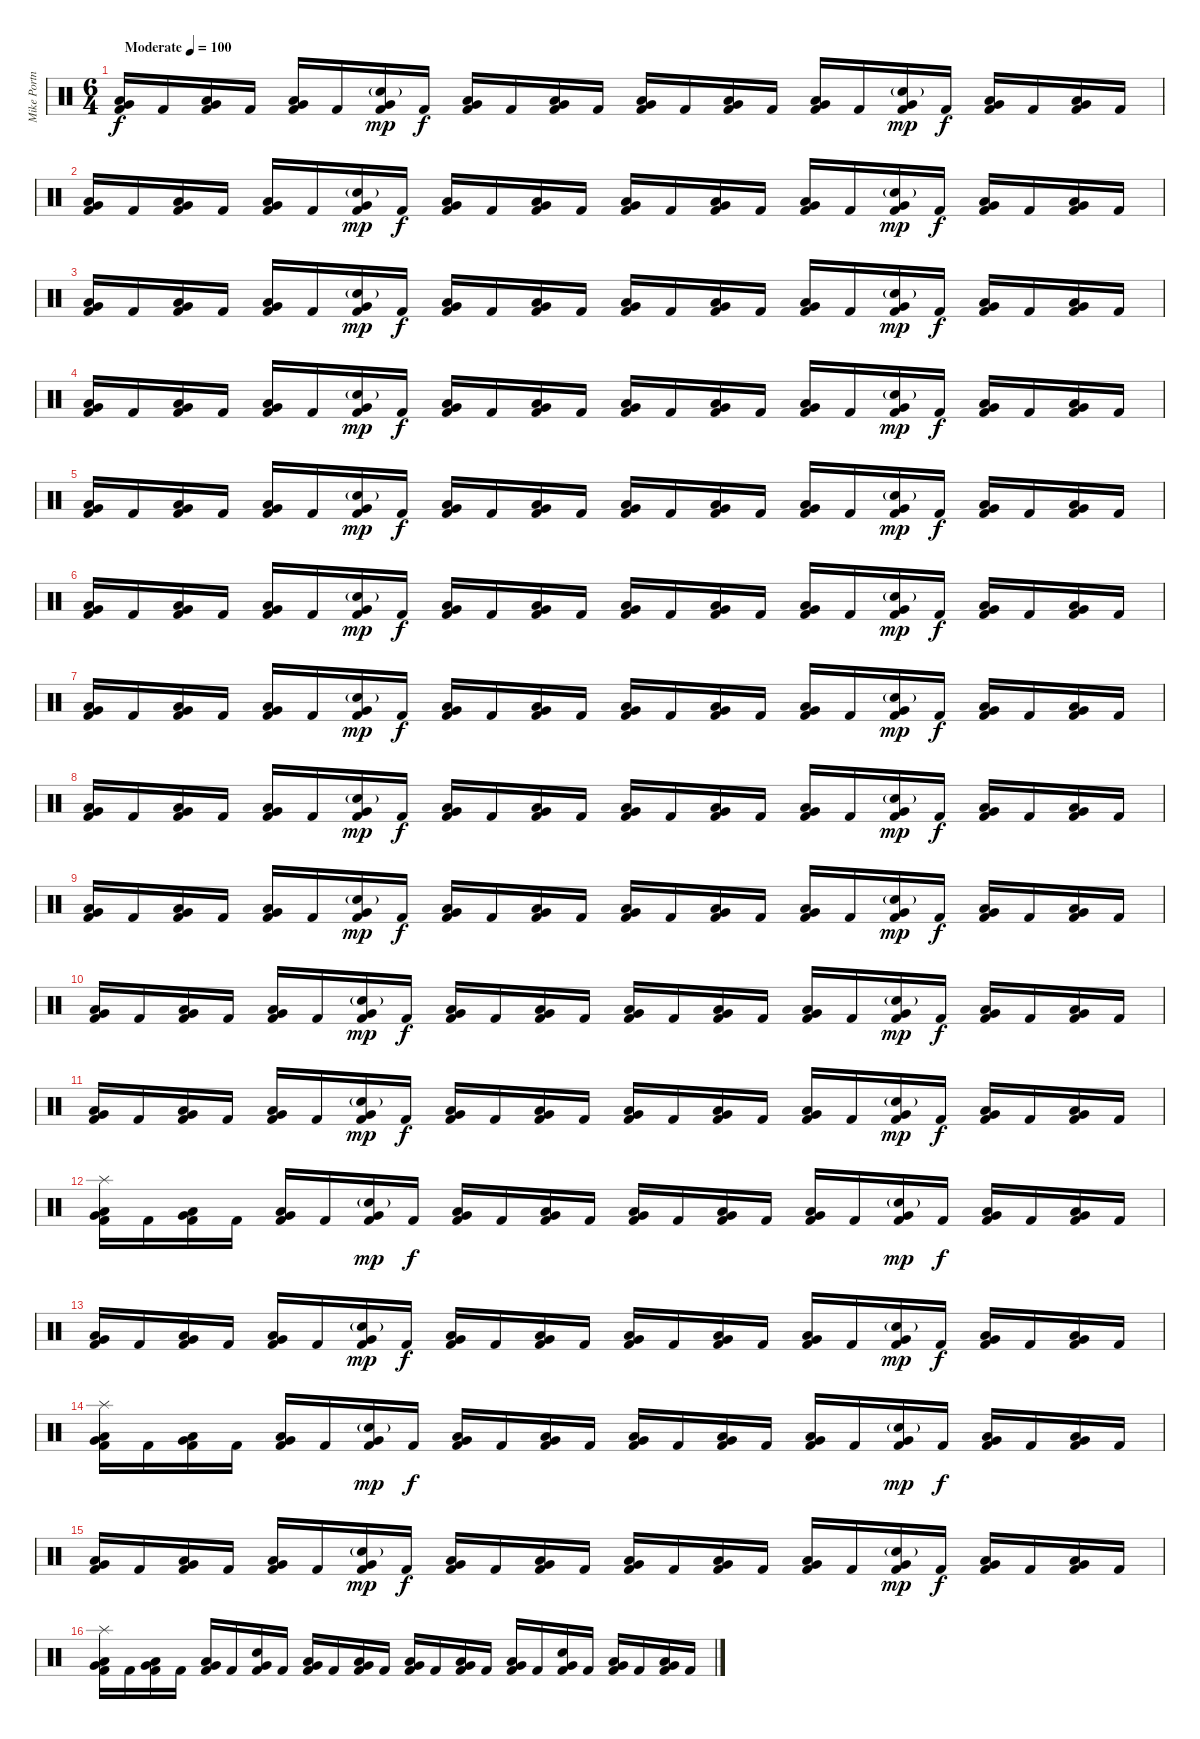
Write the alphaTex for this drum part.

\track ("Mike Portnoy" "Mike Portn") {instrument percussion}
\staff {score}
\articulation defaults
\ts (6 4)
\tempo (100 "Moderate")
\clef neutral
\ks c
("Kick (hit) 2" "Very Low Tom (hit)" "Low Floor Tom (hit)").16{dy f} "Kick (hit) 2".16 ("Kick (hit) 2" "Very Low Tom (hit)" "Low Floor Tom (hit)").16 "Kick (hit) 2".16 ("Kick (hit) 2" "Very Low Tom (hit)" "Low Floor Tom (hit)").16 "Kick (hit) 2".16 ("Kick (hit) 2" "Snare (hit) 2"{g} "Very Low Tom (hit)").16{dy mp} "Kick (hit) 2".16{dy f} ("Kick (hit) 2" "Low Floor Tom (hit)" "Very Low Tom (hit)").16 "Kick (hit) 2".16 ("Kick (hit) 2" "Low Floor Tom (hit)" "Very Low Tom (hit)").16 "Kick (hit) 2".16 ("Kick (hit) 2" "Very Low Tom (hit)" "Low Floor Tom (hit)").16 "Kick (hit) 2".16 ("Kick (hit) 2" "Very Low Tom (hit)" "Low Floor Tom (hit)").16 "Kick (hit) 2".16 ("Kick (hit) 2" "Very Low Tom (hit)" "Low Floor Tom (hit)").16 "Kick (hit) 2".16 ("Kick (hit) 2" "Snare (hit) 2"{g} "Very Low Tom (hit)").16{dy mp} "Kick (hit) 2".16{dy f} ("Kick (hit) 2" "Low Floor Tom (hit)" "Very Low Tom (hit)").16 "Kick (hit) 2".16 ("Kick (hit) 2" "Low Floor Tom (hit)" "Very Low Tom (hit)").16 "Kick (hit) 2".16 |
("Kick (hit) 2" "Very Low Tom (hit)" "Low Floor Tom (hit)").16 "Kick (hit) 2".16 ("Kick (hit) 2" "Very Low Tom (hit)" "Low Floor Tom (hit)").16 "Kick (hit) 2".16 ("Kick (hit) 2" "Very Low Tom (hit)" "Low Floor Tom (hit)").16 "Kick (hit) 2".16 ("Kick (hit) 2" "Snare (hit) 2"{g} "Very Low Tom (hit)").16{dy mp} "Kick (hit) 2".16{dy f} ("Kick (hit) 2" "Low Floor Tom (hit)" "Very Low Tom (hit)").16 "Kick (hit) 2".16 ("Kick (hit) 2" "Low Floor Tom (hit)" "Very Low Tom (hit)").16 "Kick (hit) 2".16 ("Kick (hit) 2" "Very Low Tom (hit)" "Low Floor Tom (hit)").16 "Kick (hit) 2".16 ("Kick (hit) 2" "Very Low Tom (hit)" "Low Floor Tom (hit)").16 "Kick (hit) 2".16 ("Kick (hit) 2" "Very Low Tom (hit)" "Low Floor Tom (hit)").16 "Kick (hit) 2".16 ("Kick (hit) 2" "Snare (hit) 2"{g} "Very Low Tom (hit)").16{dy mp} "Kick (hit) 2".16{dy f} ("Kick (hit) 2" "Low Floor Tom (hit)" "Very Low Tom (hit)").16 "Kick (hit) 2".16 ("Kick (hit) 2" "Low Floor Tom (hit)" "Very Low Tom (hit)").16 "Kick (hit) 2".16 |
("Kick (hit) 2" "Very Low Tom (hit)" "Low Floor Tom (hit)").16 "Kick (hit) 2".16 ("Kick (hit) 2" "Very Low Tom (hit)" "Low Floor Tom (hit)").16 "Kick (hit) 2".16 ("Kick (hit) 2" "Very Low Tom (hit)" "Low Floor Tom (hit)").16 "Kick (hit) 2".16 ("Kick (hit) 2" "Snare (hit) 2"{g} "Very Low Tom (hit)").16{dy mp} "Kick (hit) 2".16{dy f} ("Kick (hit) 2" "Low Floor Tom (hit)" "Very Low Tom (hit)").16 "Kick (hit) 2".16 ("Kick (hit) 2" "Low Floor Tom (hit)" "Very Low Tom (hit)").16 "Kick (hit) 2".16 ("Kick (hit) 2" "Very Low Tom (hit)" "Low Floor Tom (hit)").16 "Kick (hit) 2".16 ("Kick (hit) 2" "Very Low Tom (hit)" "Low Floor Tom (hit)").16 "Kick (hit) 2".16 ("Kick (hit) 2" "Very Low Tom (hit)" "Low Floor Tom (hit)").16 "Kick (hit) 2".16 ("Kick (hit) 2" "Snare (hit) 2"{g} "Very Low Tom (hit)").16{dy mp} "Kick (hit) 2".16{dy f} ("Kick (hit) 2" "Low Floor Tom (hit)" "Very Low Tom (hit)").16 "Kick (hit) 2".16 ("Kick (hit) 2" "Low Floor Tom (hit)" "Very Low Tom (hit)").16 "Kick (hit) 2".16 |
("Kick (hit) 2" "Very Low Tom (hit)" "Low Floor Tom (hit)").16 "Kick (hit) 2".16 ("Kick (hit) 2" "Very Low Tom (hit)" "Low Floor Tom (hit)").16 "Kick (hit) 2".16 ("Kick (hit) 2" "Very Low Tom (hit)" "Low Floor Tom (hit)").16 "Kick (hit) 2".16 ("Kick (hit) 2" "Snare (hit) 2"{g} "Very Low Tom (hit)").16{dy mp} "Kick (hit) 2".16{dy f} ("Kick (hit) 2" "Low Floor Tom (hit)" "Very Low Tom (hit)").16 "Kick (hit) 2".16 ("Kick (hit) 2" "Low Floor Tom (hit)" "Very Low Tom (hit)").16 "Kick (hit) 2".16 ("Kick (hit) 2" "Very Low Tom (hit)" "Low Floor Tom (hit)").16 "Kick (hit) 2".16 ("Kick (hit) 2" "Very Low Tom (hit)" "Low Floor Tom (hit)").16 "Kick (hit) 2".16 ("Kick (hit) 2" "Very Low Tom (hit)" "Low Floor Tom (hit)").16 "Kick (hit) 2".16 ("Kick (hit) 2" "Snare (hit) 2"{g} "Very Low Tom (hit)").16{dy mp} "Kick (hit) 2".16{dy f} ("Kick (hit) 2" "Low Floor Tom (hit)" "Very Low Tom (hit)").16 "Kick (hit) 2".16 ("Kick (hit) 2" "Low Floor Tom (hit)" "Very Low Tom (hit)").16 "Kick (hit) 2".16 |
("Kick (hit) 2" "Very Low Tom (hit)" "Low Floor Tom (hit)").16 "Kick (hit) 2".16 ("Kick (hit) 2" "Very Low Tom (hit)" "Low Floor Tom (hit)").16 "Kick (hit) 2".16 ("Kick (hit) 2" "Very Low Tom (hit)" "Low Floor Tom (hit)").16 "Kick (hit) 2".16 ("Kick (hit) 2" "Snare (hit) 2"{g} "Very Low Tom (hit)").16{dy mp} "Kick (hit) 2".16{dy f} ("Kick (hit) 2" "Low Floor Tom (hit)" "Very Low Tom (hit)").16 "Kick (hit) 2".16 ("Kick (hit) 2" "Low Floor Tom (hit)" "Very Low Tom (hit)").16 "Kick (hit) 2".16 ("Kick (hit) 2" "Very Low Tom (hit)" "Low Floor Tom (hit)").16 "Kick (hit) 2".16 ("Kick (hit) 2" "Very Low Tom (hit)" "Low Floor Tom (hit)").16 "Kick (hit) 2".16 ("Kick (hit) 2" "Very Low Tom (hit)" "Low Floor Tom (hit)").16 "Kick (hit) 2".16 ("Kick (hit) 2" "Snare (hit) 2"{g} "Very Low Tom (hit)").16{dy mp} "Kick (hit) 2".16{dy f} ("Kick (hit) 2" "Low Floor Tom (hit)" "Very Low Tom (hit)").16 "Kick (hit) 2".16 ("Kick (hit) 2" "Low Floor Tom (hit)" "Very Low Tom (hit)").16 "Kick (hit) 2".16 |
("Kick (hit) 2" "Very Low Tom (hit)" "Low Floor Tom (hit)").16 "Kick (hit) 2".16 ("Kick (hit) 2" "Very Low Tom (hit)" "Low Floor Tom (hit)").16 "Kick (hit) 2".16 ("Kick (hit) 2" "Very Low Tom (hit)" "Low Floor Tom (hit)").16 "Kick (hit) 2".16 ("Kick (hit) 2" "Snare (hit) 2"{g} "Very Low Tom (hit)").16{dy mp} "Kick (hit) 2".16{dy f} ("Kick (hit) 2" "Low Floor Tom (hit)" "Very Low Tom (hit)").16 "Kick (hit) 2".16 ("Kick (hit) 2" "Low Floor Tom (hit)" "Very Low Tom (hit)").16 "Kick (hit) 2".16 ("Kick (hit) 2" "Very Low Tom (hit)" "Low Floor Tom (hit)").16 "Kick (hit) 2".16 ("Kick (hit) 2" "Very Low Tom (hit)" "Low Floor Tom (hit)").16 "Kick (hit) 2".16 ("Kick (hit) 2" "Very Low Tom (hit)" "Low Floor Tom (hit)").16 "Kick (hit) 2".16 ("Kick (hit) 2" "Snare (hit) 2"{g} "Very Low Tom (hit)").16{dy mp} "Kick (hit) 2".16{dy f} ("Kick (hit) 2" "Low Floor Tom (hit)" "Very Low Tom (hit)").16 "Kick (hit) 2".16 ("Kick (hit) 2" "Low Floor Tom (hit)" "Very Low Tom (hit)").16 "Kick (hit) 2".16 |
("Kick (hit) 2" "Very Low Tom (hit)" "Low Floor Tom (hit)").16 "Kick (hit) 2".16 ("Kick (hit) 2" "Very Low Tom (hit)" "Low Floor Tom (hit)").16 "Kick (hit) 2".16 ("Kick (hit) 2" "Very Low Tom (hit)" "Low Floor Tom (hit)").16 "Kick (hit) 2".16 ("Kick (hit) 2" "Snare (hit) 2"{g} "Very Low Tom (hit)").16{dy mp} "Kick (hit) 2".16{dy f} ("Kick (hit) 2" "Low Floor Tom (hit)" "Very Low Tom (hit)").16 "Kick (hit) 2".16 ("Kick (hit) 2" "Low Floor Tom (hit)" "Very Low Tom (hit)").16 "Kick (hit) 2".16 ("Kick (hit) 2" "Very Low Tom (hit)" "Low Floor Tom (hit)").16 "Kick (hit) 2".16 ("Kick (hit) 2" "Very Low Tom (hit)" "Low Floor Tom (hit)").16 "Kick (hit) 2".16 ("Kick (hit) 2" "Very Low Tom (hit)" "Low Floor Tom (hit)").16 "Kick (hit) 2".16 ("Kick (hit) 2" "Snare (hit) 2"{g} "Very Low Tom (hit)").16{dy mp} "Kick (hit) 2".16{dy f} ("Kick (hit) 2" "Low Floor Tom (hit)" "Very Low Tom (hit)").16 "Kick (hit) 2".16 ("Kick (hit) 2" "Low Floor Tom (hit)" "Very Low Tom (hit)").16 "Kick (hit) 2".16 |
("Kick (hit) 2" "Very Low Tom (hit)" "Low Floor Tom (hit)").16 "Kick (hit) 2".16 ("Kick (hit) 2" "Very Low Tom (hit)" "Low Floor Tom (hit)").16 "Kick (hit) 2".16 ("Kick (hit) 2" "Very Low Tom (hit)" "Low Floor Tom (hit)").16 "Kick (hit) 2".16 ("Kick (hit) 2" "Snare (hit) 2"{g} "Very Low Tom (hit)").16{dy mp} "Kick (hit) 2".16{dy f} ("Kick (hit) 2" "Low Floor Tom (hit)" "Very Low Tom (hit)").16 "Kick (hit) 2".16 ("Kick (hit) 2" "Low Floor Tom (hit)" "Very Low Tom (hit)").16 "Kick (hit) 2".16 ("Kick (hit) 2" "Very Low Tom (hit)" "Low Floor Tom (hit)").16 "Kick (hit) 2".16 ("Kick (hit) 2" "Very Low Tom (hit)" "Low Floor Tom (hit)").16 "Kick (hit) 2".16 ("Kick (hit) 2" "Very Low Tom (hit)" "Low Floor Tom (hit)").16 "Kick (hit) 2".16 ("Kick (hit) 2" "Snare (hit) 2"{g} "Very Low Tom (hit)").16{dy mp} "Kick (hit) 2".16{dy f} ("Kick (hit) 2" "Low Floor Tom (hit)" "Very Low Tom (hit)").16 "Kick (hit) 2".16 ("Kick (hit) 2" "Low Floor Tom (hit)" "Very Low Tom (hit)").16 "Kick (hit) 2".16 |
("Kick (hit) 2" "Very Low Tom (hit)" "Low Floor Tom (hit)").16 "Kick (hit) 2".16 ("Kick (hit) 2" "Very Low Tom (hit)" "Low Floor Tom (hit)").16 "Kick (hit) 2".16 ("Kick (hit) 2" "Very Low Tom (hit)" "Low Floor Tom (hit)").16 "Kick (hit) 2".16 ("Kick (hit) 2" "Snare (hit) 2"{g} "Very Low Tom (hit)").16{dy mp} "Kick (hit) 2".16{dy f} ("Kick (hit) 2" "Low Floor Tom (hit)" "Very Low Tom (hit)").16 "Kick (hit) 2".16 ("Kick (hit) 2" "Low Floor Tom (hit)" "Very Low Tom (hit)").16 "Kick (hit) 2".16 ("Kick (hit) 2" "Very Low Tom (hit)" "Low Floor Tom (hit)").16 "Kick (hit) 2".16 ("Kick (hit) 2" "Very Low Tom (hit)" "Low Floor Tom (hit)").16 "Kick (hit) 2".16 ("Kick (hit) 2" "Very Low Tom (hit)" "Low Floor Tom (hit)").16 "Kick (hit) 2".16 ("Kick (hit) 2" "Snare (hit) 2"{g} "Very Low Tom (hit)").16{dy mp} "Kick (hit) 2".16{dy f} ("Kick (hit) 2" "Low Floor Tom (hit)" "Very Low Tom (hit)").16 "Kick (hit) 2".16 ("Kick (hit) 2" "Low Floor Tom (hit)" "Very Low Tom (hit)").16 "Kick (hit) 2".16 |
("Kick (hit) 2" "Very Low Tom (hit)" "Low Floor Tom (hit)").16 "Kick (hit) 2".16 ("Kick (hit) 2" "Very Low Tom (hit)" "Low Floor Tom (hit)").16 "Kick (hit) 2".16 ("Kick (hit) 2" "Very Low Tom (hit)" "Low Floor Tom (hit)").16 "Kick (hit) 2".16 ("Kick (hit) 2" "Snare (hit) 2"{g} "Very Low Tom (hit)").16{dy mp} "Kick (hit) 2".16{dy f} ("Kick (hit) 2" "Low Floor Tom (hit)" "Very Low Tom (hit)").16 "Kick (hit) 2".16 ("Kick (hit) 2" "Low Floor Tom (hit)" "Very Low Tom (hit)").16 "Kick (hit) 2".16 ("Kick (hit) 2" "Very Low Tom (hit)" "Low Floor Tom (hit)").16 "Kick (hit) 2".16 ("Kick (hit) 2" "Very Low Tom (hit)" "Low Floor Tom (hit)").16 "Kick (hit) 2".16 ("Kick (hit) 2" "Very Low Tom (hit)" "Low Floor Tom (hit)").16 "Kick (hit) 2".16 ("Kick (hit) 2" "Snare (hit) 2"{g} "Very Low Tom (hit)").16{dy mp} "Kick (hit) 2".16{dy f} ("Kick (hit) 2" "Low Floor Tom (hit)" "Very Low Tom (hit)").16 "Kick (hit) 2".16 ("Kick (hit) 2" "Low Floor Tom (hit)" "Very Low Tom (hit)").16 "Kick (hit) 2".16 |
("Kick (hit) 2" "Very Low Tom (hit)" "Low Floor Tom (hit)").16 "Kick (hit) 2".16 ("Kick (hit) 2" "Very Low Tom (hit)" "Low Floor Tom (hit)").16 "Kick (hit) 2".16 ("Kick (hit) 2" "Very Low Tom (hit)" "Low Floor Tom (hit)").16 "Kick (hit) 2".16 ("Kick (hit) 2" "Snare (hit) 2"{g} "Very Low Tom (hit)").16{dy mp} "Kick (hit) 2".16{dy f} ("Kick (hit) 2" "Low Floor Tom (hit)" "Very Low Tom (hit)").16 "Kick (hit) 2".16 ("Kick (hit) 2" "Low Floor Tom (hit)" "Very Low Tom (hit)").16 "Kick (hit) 2".16 ("Kick (hit) 2" "Very Low Tom (hit)" "Low Floor Tom (hit)").16 "Kick (hit) 2".16 ("Kick (hit) 2" "Very Low Tom (hit)" "Low Floor Tom (hit)").16 "Kick (hit) 2".16 ("Kick (hit) 2" "Very Low Tom (hit)" "Low Floor Tom (hit)").16 "Kick (hit) 2".16 ("Kick (hit) 2" "Snare (hit) 2"{g} "Very Low Tom (hit)").16{dy mp} "Kick (hit) 2".16{dy f} ("Kick (hit) 2" "Low Floor Tom (hit)" "Very Low Tom (hit)").16 "Kick (hit) 2".16 ("Kick (hit) 2" "Low Floor Tom (hit)" "Very Low Tom (hit)").16 "Kick (hit) 2".16 |
("Kick (hit) 2" "Very Low Tom (hit)" "Low Floor Tom (hit)" "Splash (hit)").16 "Kick (hit) 2".16 ("Kick (hit) 2" "Very Low Tom (hit)" "Low Floor Tom (hit)").16 "Kick (hit) 2".16 ("Kick (hit) 2" "Very Low Tom (hit)" "Low Floor Tom (hit)").16 "Kick (hit) 2".16 ("Kick (hit) 2" "Snare (hit) 2"{g} "Very Low Tom (hit)").16{dy mp} "Kick (hit) 2".16{dy f} ("Kick (hit) 2" "Low Floor Tom (hit)" "Very Low Tom (hit)").16 "Kick (hit) 2".16 ("Kick (hit) 2" "Low Floor Tom (hit)" "Very Low Tom (hit)").16 "Kick (hit) 2".16 ("Kick (hit) 2" "Very Low Tom (hit)" "Low Floor Tom (hit)").16 "Kick (hit) 2".16 ("Kick (hit) 2" "Very Low Tom (hit)" "Low Floor Tom (hit)").16 "Kick (hit) 2".16 ("Kick (hit) 2" "Very Low Tom (hit)" "Low Floor Tom (hit)").16 "Kick (hit) 2".16 ("Kick (hit) 2" "Snare (hit) 2"{g} "Very Low Tom (hit)").16{dy mp} "Kick (hit) 2".16{dy f} ("Kick (hit) 2" "Low Floor Tom (hit)" "Very Low Tom (hit)").16 "Kick (hit) 2".16 ("Kick (hit) 2" "Low Floor Tom (hit)" "Very Low Tom (hit)").16 "Kick (hit) 2".16 |
("Kick (hit) 2" "Very Low Tom (hit)" "Low Floor Tom (hit)").16 "Kick (hit) 2".16 ("Kick (hit) 2" "Very Low Tom (hit)" "Low Floor Tom (hit)").16 "Kick (hit) 2".16 ("Kick (hit) 2" "Very Low Tom (hit)" "Low Floor Tom (hit)").16 "Kick (hit) 2".16 ("Kick (hit) 2" "Snare (hit) 2"{g} "Very Low Tom (hit)").16{dy mp} "Kick (hit) 2".16{dy f} ("Kick (hit) 2" "Low Floor Tom (hit)" "Very Low Tom (hit)").16 "Kick (hit) 2".16 ("Kick (hit) 2" "Low Floor Tom (hit)" "Very Low Tom (hit)").16 "Kick (hit) 2".16 ("Kick (hit) 2" "Very Low Tom (hit)" "Low Floor Tom (hit)").16 "Kick (hit) 2".16 ("Kick (hit) 2" "Very Low Tom (hit)" "Low Floor Tom (hit)").16 "Kick (hit) 2".16 ("Kick (hit) 2" "Very Low Tom (hit)" "Low Floor Tom (hit)").16 "Kick (hit) 2".16 ("Kick (hit) 2" "Snare (hit) 2"{g} "Very Low Tom (hit)").16{dy mp} "Kick (hit) 2".16{dy f} ("Kick (hit) 2" "Low Floor Tom (hit)" "Very Low Tom (hit)").16 "Kick (hit) 2".16 ("Kick (hit) 2" "Low Floor Tom (hit)" "Very Low Tom (hit)").16 "Kick (hit) 2".16 |
("Kick (hit) 2" "Very Low Tom (hit)" "Low Floor Tom (hit)" "Splash (hit)").16 "Kick (hit) 2".16 ("Kick (hit) 2" "Very Low Tom (hit)" "Low Floor Tom (hit)").16 "Kick (hit) 2".16 ("Kick (hit) 2" "Very Low Tom (hit)" "Low Floor Tom (hit)").16 "Kick (hit) 2".16 ("Kick (hit) 2" "Snare (hit) 2"{g} "Very Low Tom (hit)").16{dy mp} "Kick (hit) 2".16{dy f} ("Kick (hit) 2" "Low Floor Tom (hit)" "Very Low Tom (hit)").16 "Kick (hit) 2".16 ("Kick (hit) 2" "Low Floor Tom (hit)" "Very Low Tom (hit)").16 "Kick (hit) 2".16 ("Kick (hit) 2" "Very Low Tom (hit)" "Low Floor Tom (hit)").16 "Kick (hit) 2".16 ("Kick (hit) 2" "Very Low Tom (hit)" "Low Floor Tom (hit)").16 "Kick (hit) 2".16 ("Kick (hit) 2" "Very Low Tom (hit)" "Low Floor Tom (hit)").16 "Kick (hit) 2".16 ("Kick (hit) 2" "Snare (hit) 2"{g} "Very Low Tom (hit)").16{dy mp} "Kick (hit) 2".16{dy f} ("Kick (hit) 2" "Low Floor Tom (hit)" "Very Low Tom (hit)").16 "Kick (hit) 2".16 ("Kick (hit) 2" "Low Floor Tom (hit)" "Very Low Tom (hit)").16 "Kick (hit) 2".16 |
("Kick (hit) 2" "Very Low Tom (hit)" "Low Floor Tom (hit)").16 "Kick (hit) 2".16 ("Kick (hit) 2" "Very Low Tom (hit)" "Low Floor Tom (hit)").16 "Kick (hit) 2".16 ("Kick (hit) 2" "Very Low Tom (hit)" "Low Floor Tom (hit)").16 "Kick (hit) 2".16 ("Kick (hit) 2" "Snare (hit) 2"{g} "Very Low Tom (hit)").16{dy mp} "Kick (hit) 2".16{dy f} ("Kick (hit) 2" "Low Floor Tom (hit)" "Very Low Tom (hit)").16 "Kick (hit) 2".16 ("Kick (hit) 2" "Low Floor Tom (hit)" "Very Low Tom (hit)").16 "Kick (hit) 2".16 ("Kick (hit) 2" "Very Low Tom (hit)" "Low Floor Tom (hit)").16 "Kick (hit) 2".16 ("Kick (hit) 2" "Very Low Tom (hit)" "Low Floor Tom (hit)").16 "Kick (hit) 2".16 ("Kick (hit) 2" "Very Low Tom (hit)" "Low Floor Tom (hit)").16 "Kick (hit) 2".16 ("Kick (hit) 2" "Snare (hit) 2"{g} "Very Low Tom (hit)").16{dy mp} "Kick (hit) 2".16{dy f} ("Kick (hit) 2" "Low Floor Tom (hit)" "Very Low Tom (hit)").16 "Kick (hit) 2".16 ("Kick (hit) 2" "Low Floor Tom (hit)" "Very Low Tom (hit)").16 "Kick (hit) 2".16 |
("Kick (hit) 2" "Very Low Tom (hit)" "Low Floor Tom (hit)" "Splash (hit)").16 "Kick (hit) 2".16 ("Kick (hit) 2" "Very Low Tom (hit)" "Low Floor Tom (hit)").16 "Kick (hit) 2".16 ("Kick (hit) 2" "Very Low Tom (hit)" "Low Floor Tom (hit)").16 "Kick (hit) 2".16 ("Kick (hit) 2" "Snare (hit) 2" "Very Low Tom (hit)").16 "Kick (hit) 2".16 ("Kick (hit) 2" "Low Floor Tom (hit)" "Very Low Tom (hit)").16 "Kick (hit) 2".16 ("Kick (hit) 2" "Low Floor Tom (hit)" "Very Low Tom (hit)").16 "Kick (hit) 2".16 ("Kick (hit) 2" "Very Low Tom (hit)" "Low Floor Tom (hit)").16 "Kick (hit) 2".16 ("Kick (hit) 2" "Very Low Tom (hit)" "Low Floor Tom (hit)").16 "Kick (hit) 2".16 ("Kick (hit) 2" "Very Low Tom (hit)" "Low Floor Tom (hit)").16 "Kick (hit) 2".16 ("Kick (hit) 2" "Snare (hit) 2" "Very Low Tom (hit)").16 "Kick (hit) 2".16 ("Kick (hit) 2" "Low Floor Tom (hit)" "Very Low Tom (hit)").16 "Kick (hit) 2".16 ("Kick (hit) 2" "Low Floor Tom (hit)" "Very Low Tom (hit)").16 "Kick (hit) 2".16
